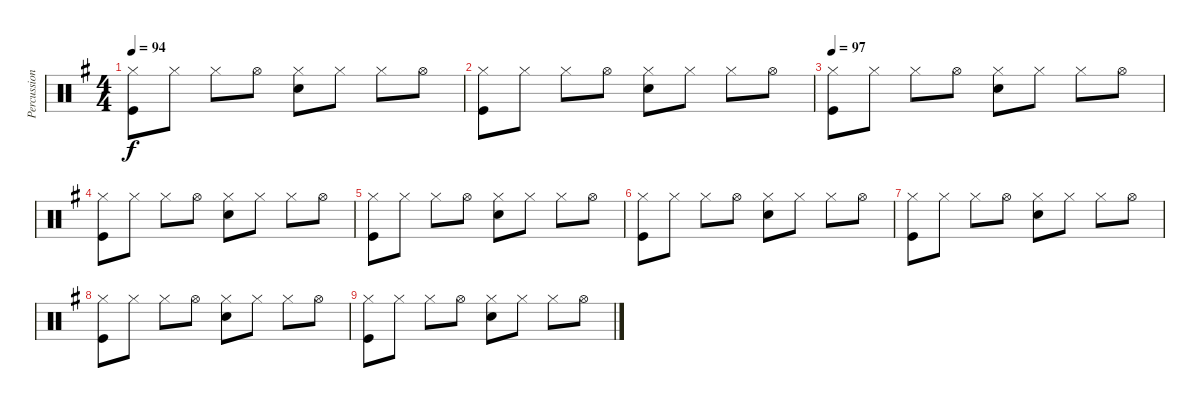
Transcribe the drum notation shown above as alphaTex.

\track ("Percussions" "Percussion") {instrument percussion}
\staff {score}
\articulation defaults
\ts (4 4)
\tempo 94
\clef neutral
\ks g
("Kick (hit)" "Hi-Hat (closed)").8{dy f} "Hi-Hat (closed)".8 "Hi-Hat (closed)".8 "Hi-Hat (open)".8 ("Hi-Hat (closed)" "Snare (hit) 2").8 "Hi-Hat (closed)".8 "Hi-Hat (closed)".8 "Hi-Hat (open)".8 |
("Kick (hit)" "Hi-Hat (closed)").8 "Hi-Hat (closed)".8 "Hi-Hat (closed)".8 "Hi-Hat (open)".8 ("Hi-Hat (closed)" "Snare (hit) 2").8 "Hi-Hat (closed)".8 "Hi-Hat (closed)".8 "Hi-Hat (open)".8 |
\tempo 97
("Kick (hit)" "Hi-Hat (closed)").8 "Hi-Hat (closed)".8 "Hi-Hat (closed)".8 "Hi-Hat (open)".8 ("Hi-Hat (closed)" "Snare (hit) 2").8 "Hi-Hat (closed)".8 "Hi-Hat (closed)".8 "Hi-Hat (open)".8 |
("Kick (hit)" "Hi-Hat (closed)").8 "Hi-Hat (closed)".8 "Hi-Hat (closed)".8 "Hi-Hat (open)".8 ("Hi-Hat (closed)" "Snare (hit) 2").8 "Hi-Hat (closed)".8 "Hi-Hat (closed)".8 "Hi-Hat (open)".8 |
("Kick (hit)" "Hi-Hat (closed)").8 "Hi-Hat (closed)".8 "Hi-Hat (closed)".8 "Hi-Hat (open)".8 ("Hi-Hat (closed)" "Snare (hit) 2").8 "Hi-Hat (closed)".8 "Hi-Hat (closed)".8 "Hi-Hat (open)".8 |
("Kick (hit)" "Hi-Hat (closed)").8 "Hi-Hat (closed)".8 "Hi-Hat (closed)".8 "Hi-Hat (open)".8 ("Hi-Hat (closed)" "Snare (hit) 2").8 "Hi-Hat (closed)".8 "Hi-Hat (closed)".8 "Hi-Hat (open)".8 |
("Kick (hit)" "Hi-Hat (closed)").8 "Hi-Hat (closed)".8 "Hi-Hat (closed)".8 "Hi-Hat (open)".8 ("Hi-Hat (closed)" "Snare (hit) 2").8 "Hi-Hat (closed)".8 "Hi-Hat (closed)".8 "Hi-Hat (open)".8 |
("Kick (hit)" "Hi-Hat (closed)").8 "Hi-Hat (closed)".8 "Hi-Hat (closed)".8 "Hi-Hat (open)".8 ("Hi-Hat (closed)" "Snare (hit) 2").8 "Hi-Hat (closed)".8 "Hi-Hat (closed)".8 "Hi-Hat (open)".8 |
("Kick (hit)" "Hi-Hat (closed)").8 "Hi-Hat (closed)".8 "Hi-Hat (closed)".8 "Hi-Hat (open)".8 ("Hi-Hat (closed)" "Snare (hit) 2").8 "Hi-Hat (closed)".8 "Hi-Hat (closed)".8 "Hi-Hat (open)".8
